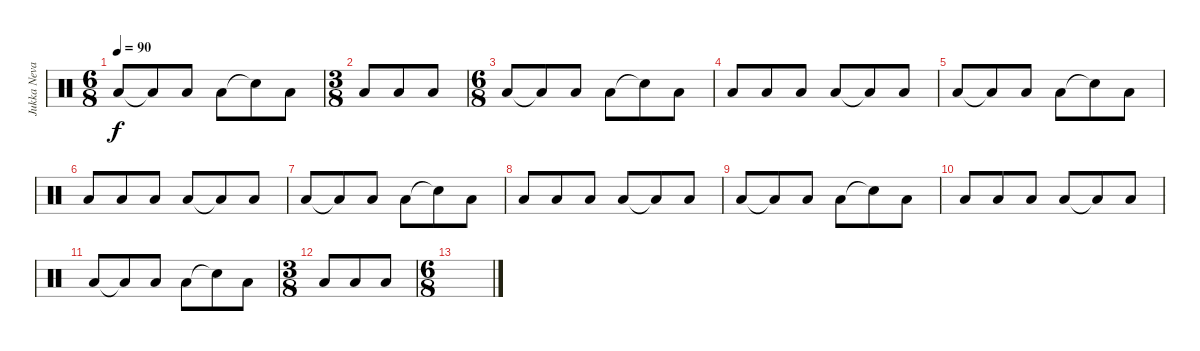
\track ("Jukka Nevalainen" "Jukka Neva") {instrument percussion}
\staff {score}
\articulation defaults
\ts (6 8)
\tempo 90
\clef neutral
\ks c "Low Floor Tom (hit)".8{dy f} "Low Floor Tom (hit)"{t}.8 "Low Floor Tom (hit)".8 "Low Floor Tom (hit)".8 "Snare (hit)"{t}.8 "Low Floor Tom (hit)".8
|
\ts (3 8)
"Low Floor Tom (hit)".8 "Low Floor Tom (hit)".8 "Low Floor Tom (hit)".8 |
\ts (6 8)
"Low Floor Tom (hit)".8 "Low Floor Tom (hit)"{t}.8 "Low Floor Tom (hit)".8 "Low Floor Tom (hit)".8 "Snare (hit)"{t}.8 "Low Floor Tom (hit)".8 |
"Low Floor Tom (hit)".8 "Low Floor Tom (hit)".8 "Low Floor Tom (hit)".8 "Low Floor Tom (hit)".8 "Low Floor Tom (hit)"{t}.8 "Low Floor Tom (hit)".8 |
"Low Floor Tom (hit)".8 "Low Floor Tom (hit)"{t}.8 "Low Floor Tom (hit)".8 "Low Floor Tom (hit)".8 "Snare (hit)"{t}.8 "Low Floor Tom (hit)".8 |
"Low Floor Tom (hit)".8 "Low Floor Tom (hit)".8 "Low Floor Tom (hit)".8 "Low Floor Tom (hit)".8 "Low Floor Tom (hit)"{t}.8 "Low Floor Tom (hit)".8 |
"Low Floor Tom (hit)".8 "Low Floor Tom (hit)"{t}.8 "Low Floor Tom (hit)".8 "Low Floor Tom (hit)".8 "Snare (hit)"{t}.8 "Low Floor Tom (hit)".8 |
"Low Floor Tom (hit)".8 "Low Floor Tom (hit)".8 "Low Floor Tom (hit)".8 "Low Floor Tom (hit)".8 "Low Floor Tom (hit)"{t}.8 "Low Floor Tom (hit)".8 |
"Low Floor Tom (hit)".8 "Low Floor Tom (hit)"{t}.8 "Low Floor Tom (hit)".8 "Low Floor Tom (hit)".8 "Snare (hit)"{t}.8 "Low Floor Tom (hit)".8 |
"Low Floor Tom (hit)".8 "Low Floor Tom (hit)".8 "Low Floor Tom (hit)".8 "Low Floor Tom (hit)".8 "Low Floor Tom (hit)"{t}.8 "Low Floor Tom (hit)".8 |
"Low Floor Tom (hit)".8 "Low Floor Tom (hit)"{t}.8 "Low Floor Tom (hit)".8 "Low Floor Tom (hit)".8 "Snare (hit)"{t}.8 "Low Floor Tom (hit)".8 |
\ts (3 8)
"Low Floor Tom (hit)".8 "Low Floor Tom (hit)".8 "Low Floor Tom (hit)".8 |
\ts (6 8)
